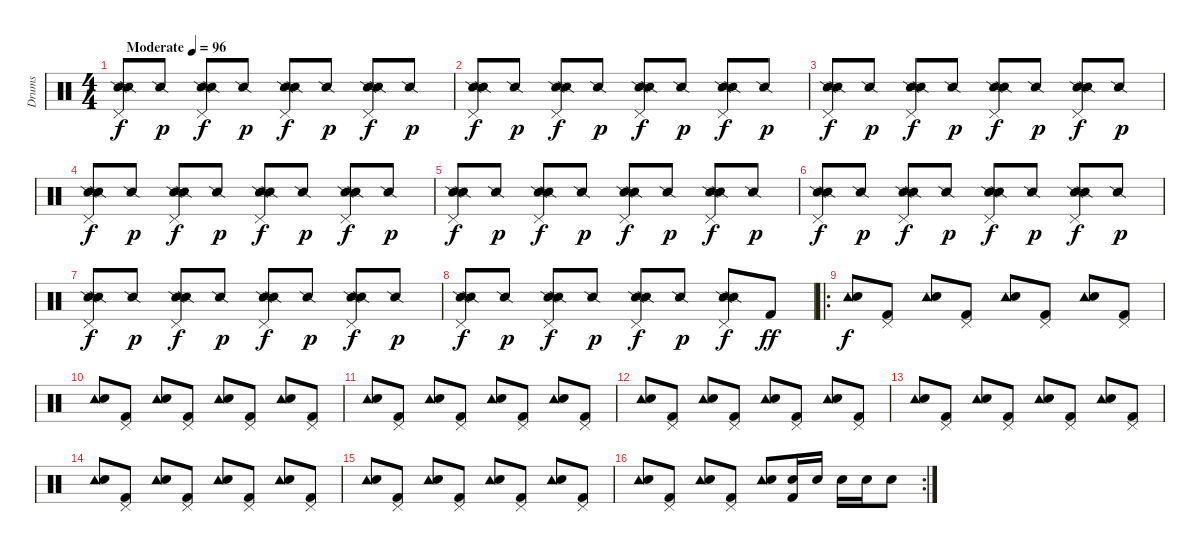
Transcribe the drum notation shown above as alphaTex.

\track ("Drums" "Drums") {instrument percussion}
\staff {score}
\articulation defaults
\ts (4 4)
\tempo (96 "Moderate")
\clef neutral
\ks c
("Pedal Hi-Hat (hit)" "Snare (side stick) 2" "Snare (side stick) 2").8{dy f} "Snare (side stick) 2".8{dy p} ("Pedal Hi-Hat (hit)" "Snare (side stick) 2" "Snare (side stick) 2").8{dy f} "Snare (side stick) 2".8{dy p} ("Pedal Hi-Hat (hit)" "Snare (side stick) 2" "Snare (side stick) 2").8{dy f} "Snare (side stick) 2".8{dy p} ("Pedal Hi-Hat (hit)" "Snare (side stick) 2" "Snare (side stick) 2").8{dy f} "Snare (side stick) 2".8{dy p} |
("Pedal Hi-Hat (hit)" "Snare (side stick) 2" "Snare (side stick) 2").8{dy f} "Snare (side stick) 2".8{dy p} ("Pedal Hi-Hat (hit)" "Snare (side stick) 2" "Snare (side stick) 2").8{dy f} "Snare (side stick) 2".8{dy p} ("Pedal Hi-Hat (hit)" "Snare (side stick) 2" "Snare (side stick) 2").8{dy f} "Snare (side stick) 2".8{dy p} ("Pedal Hi-Hat (hit)" "Snare (side stick) 2" "Snare (side stick) 2").8{dy f} "Snare (side stick) 2".8{dy p} |
("Pedal Hi-Hat (hit)" "Snare (side stick) 2" "Snare (side stick) 2").8{dy f} "Snare (side stick) 2".8{dy p} ("Pedal Hi-Hat (hit)" "Snare (side stick) 2" "Snare (side stick) 2").8{dy f} "Snare (side stick) 2".8{dy p} ("Pedal Hi-Hat (hit)" "Snare (side stick) 2" "Snare (side stick) 2").8{dy f} "Snare (side stick) 2".8{dy p} ("Pedal Hi-Hat (hit)" "Snare (side stick) 2" "Snare (side stick) 2").8{dy f} "Snare (side stick) 2".8{dy p} |
("Pedal Hi-Hat (hit)" "Snare (side stick) 2" "Snare (side stick) 2").8{dy f} "Snare (side stick) 2".8{dy p} ("Pedal Hi-Hat (hit)" "Snare (side stick) 2" "Snare (side stick) 2").8{dy f} "Snare (side stick) 2".8{dy p} ("Pedal Hi-Hat (hit)" "Snare (side stick) 2" "Snare (side stick) 2").8{dy f} "Snare (side stick) 2".8{dy p} ("Pedal Hi-Hat (hit)" "Snare (side stick) 2" "Snare (side stick) 2").8{dy f} "Snare (side stick) 2".8{dy p} |
("Pedal Hi-Hat (hit)" "Snare (side stick) 2" "Snare (side stick) 2").8{dy f} "Snare (side stick) 2".8{dy p} ("Pedal Hi-Hat (hit)" "Snare (side stick) 2" "Snare (side stick) 2").8{dy f} "Snare (side stick) 2".8{dy p} ("Pedal Hi-Hat (hit)" "Snare (side stick) 2" "Snare (side stick) 2").8{dy f} "Snare (side stick) 2".8{dy p} ("Pedal Hi-Hat (hit)" "Snare (side stick) 2" "Snare (side stick) 2").8{dy f} "Snare (side stick) 2".8{dy p} |
("Pedal Hi-Hat (hit)" "Snare (side stick) 2" "Snare (side stick) 2").8{dy f} "Snare (side stick) 2".8{dy p} ("Pedal Hi-Hat (hit)" "Snare (side stick) 2" "Snare (side stick) 2").8{dy f} "Snare (side stick) 2".8{dy p} ("Pedal Hi-Hat (hit)" "Snare (side stick) 2" "Snare (side stick) 2").8{dy f} "Snare (side stick) 2".8{dy p} ("Pedal Hi-Hat (hit)" "Snare (side stick) 2" "Snare (side stick) 2").8{dy f} "Snare (side stick) 2".8{dy p} |
("Pedal Hi-Hat (hit)" "Snare (side stick) 2" "Snare (side stick) 2").8{dy f} "Snare (side stick) 2".8{dy p} ("Pedal Hi-Hat (hit)" "Snare (side stick) 2" "Snare (side stick) 2").8{dy f} "Snare (side stick) 2".8{dy p} ("Pedal Hi-Hat (hit)" "Snare (side stick) 2" "Snare (side stick) 2").8{dy f} "Snare (side stick) 2".8{dy p} ("Pedal Hi-Hat (hit)" "Snare (side stick) 2" "Snare (side stick) 2").8{dy f} "Snare (side stick) 2".8{dy p} |
("Pedal Hi-Hat (hit)" "Snare (side stick) 2" "Snare (side stick) 2").8{dy f} "Snare (side stick) 2".8{dy p} ("Pedal Hi-Hat (hit)" "Snare (side stick) 2" "Snare (side stick) 2").8{dy f} "Snare (side stick) 2".8{dy p} ("Pedal Hi-Hat (hit)" "Snare (side stick) 2" "Snare (side stick) 2").8{dy f} "Snare (side stick) 2".8{dy p} ("Pedal Hi-Hat (hit)" "Snare (side stick) 2" "Snare (side stick) 2").8{dy f} "Kick (hit) 2".8{dy ff} |
\ro
("Tambourine (hit)" "Electric Snare (hit)").8{dy f} ("Pedal Hi-Hat (hit)" "Kick (hit) 2").8 ("Tambourine (hit)" "Electric Snare (hit)").8 ("Pedal Hi-Hat (hit)" "Kick (hit) 2").8 ("Tambourine (hit)" "Electric Snare (hit)").8 ("Pedal Hi-Hat (hit)" "Kick (hit) 2").8 ("Tambourine (hit)" "Electric Snare (hit)").8 ("Pedal Hi-Hat (hit)" "Kick (hit) 2").8 |
("Tambourine (hit)" "Electric Snare (hit)").8 ("Pedal Hi-Hat (hit)" "Kick (hit) 2").8 ("Tambourine (hit)" "Electric Snare (hit)").8 ("Pedal Hi-Hat (hit)" "Kick (hit) 2").8 ("Tambourine (hit)" "Electric Snare (hit)").8 ("Pedal Hi-Hat (hit)" "Kick (hit) 2").8 ("Tambourine (hit)" "Electric Snare (hit)").8 ("Pedal Hi-Hat (hit)" "Kick (hit) 2").8 |
("Tambourine (hit)" "Electric Snare (hit)").8 ("Pedal Hi-Hat (hit)" "Kick (hit) 2").8 ("Tambourine (hit)" "Electric Snare (hit)").8 ("Pedal Hi-Hat (hit)" "Kick (hit) 2").8 ("Tambourine (hit)" "Electric Snare (hit)").8 ("Pedal Hi-Hat (hit)" "Kick (hit) 2").8 ("Tambourine (hit)" "Electric Snare (hit)").8 ("Pedal Hi-Hat (hit)" "Kick (hit) 2").8 |
("Tambourine (hit)" "Electric Snare (hit)").8 ("Pedal Hi-Hat (hit)" "Kick (hit) 2").8 ("Tambourine (hit)" "Electric Snare (hit)").8 ("Pedal Hi-Hat (hit)" "Kick (hit) 2").8 ("Tambourine (hit)" "Electric Snare (hit)").8 ("Pedal Hi-Hat (hit)" "Kick (hit) 2").8 ("Tambourine (hit)" "Electric Snare (hit)").8 ("Pedal Hi-Hat (hit)" "Kick (hit) 2").8 |
("Tambourine (hit)" "Electric Snare (hit)").8 ("Pedal Hi-Hat (hit)" "Kick (hit) 2").8 ("Tambourine (hit)" "Electric Snare (hit)").8 ("Pedal Hi-Hat (hit)" "Kick (hit) 2").8 ("Tambourine (hit)" "Electric Snare (hit)").8 ("Pedal Hi-Hat (hit)" "Kick (hit) 2").8 ("Tambourine (hit)" "Electric Snare (hit)").8 ("Pedal Hi-Hat (hit)" "Kick (hit) 2").8 |
("Tambourine (hit)" "Electric Snare (hit)").8 ("Pedal Hi-Hat (hit)" "Kick (hit) 2").8 ("Tambourine (hit)" "Electric Snare (hit)").8 ("Pedal Hi-Hat (hit)" "Kick (hit) 2").8 ("Tambourine (hit)" "Electric Snare (hit)").8 ("Pedal Hi-Hat (hit)" "Kick (hit) 2").8 ("Tambourine (hit)" "Electric Snare (hit)").8 ("Pedal Hi-Hat (hit)" "Kick (hit) 2").8 |
("Tambourine (hit)" "Electric Snare (hit)").8 ("Pedal Hi-Hat (hit)" "Kick (hit) 2").8 ("Tambourine (hit)" "Electric Snare (hit)").8 ("Pedal Hi-Hat (hit)" "Kick (hit) 2").8 ("Tambourine (hit)" "Electric Snare (hit)").8 ("Pedal Hi-Hat (hit)" "Kick (hit) 2").8 ("Tambourine (hit)" "Electric Snare (hit)").8 ("Pedal Hi-Hat (hit)" "Kick (hit) 2").8 |
\rc 2
("Tambourine (hit)" "Electric Snare (hit)").8 ("Pedal Hi-Hat (hit)" "Kick (hit) 2").8 ("Tambourine (hit)" "Electric Snare (hit)").8 ("Pedal Hi-Hat (hit)" "Kick (hit) 2").8 ("Tambourine (hit)" "Electric Snare (hit)").8 ("Snare (hit) 2" "Kick (hit) 2").16 "Snare (hit) 2".16 "Snare (hit) 2".16 "Snare (hit) 2".16 "Snare (hit) 2".8
